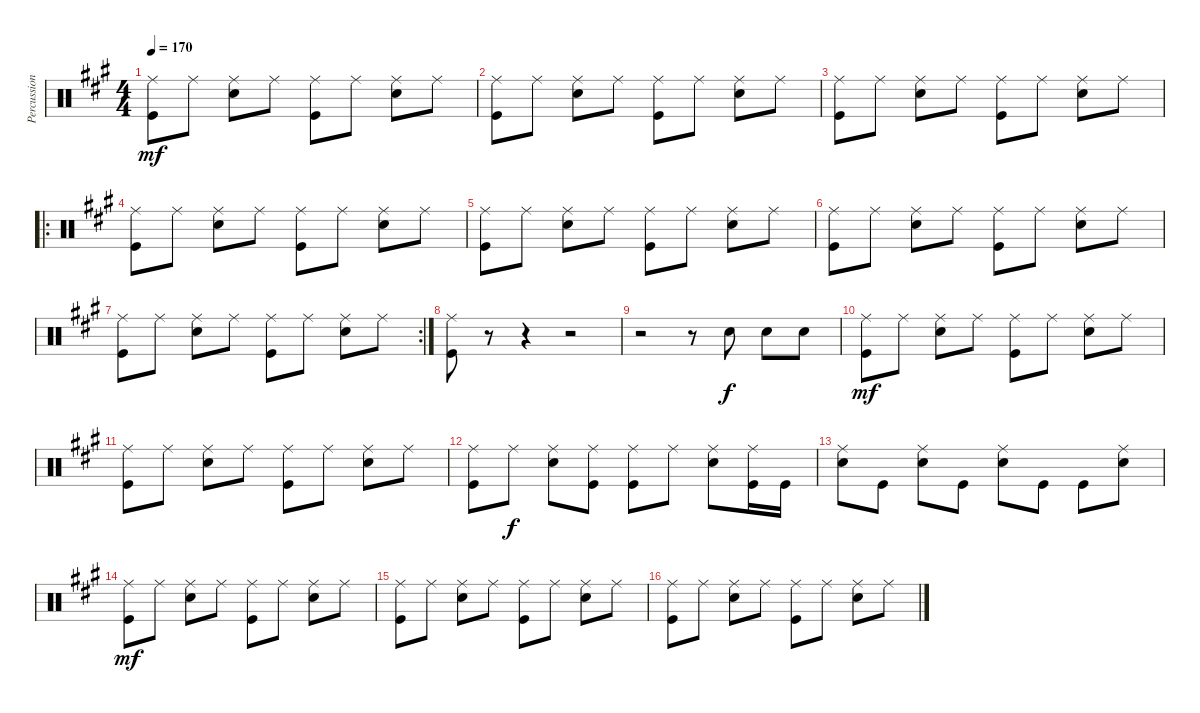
\track ("Percussion" "Percussion") {instrument percussion}
\staff {score}
\articulation defaults
\ts (4 4)
\tempo 170
\clef neutral
\ks a
("Ride (middle)" "Kick (hit)").8{dy mf} "Ride (middle)".8 ("Ride (middle)" "Snare (hit) 2").8 "Ride (middle)".8 ("Ride (middle)" "Kick (hit)").8 "Ride (middle)".8 ("Ride (middle)" "Snare (hit) 2").8 "Ride (middle)".8 |
("Ride (middle)" "Kick (hit)").8 "Ride (middle)".8 ("Ride (middle)" "Snare (hit) 2").8 "Ride (middle)".8 ("Ride (middle)" "Kick (hit)").8 "Ride (middle)".8 ("Ride (middle)" "Snare (hit) 2").8 "Ride (middle)".8 |
("Ride (middle)" "Kick (hit)").8 "Ride (middle)".8 ("Ride (middle)" "Snare (hit) 2").8 "Ride (middle)".8 ("Ride (middle)" "Kick (hit)").8 "Ride (middle)".8 ("Ride (middle)" "Snare (hit) 2").8 "Ride (middle)".8 |
\ro
("Ride (middle)" "Kick (hit)").8 "Ride (middle)".8 ("Ride (middle)" "Snare (hit) 2").8 "Ride (middle)".8 ("Ride (middle)" "Kick (hit)").8 "Ride (middle)".8 ("Ride (middle)" "Snare (hit) 2").8 "Ride (middle)".8 |
("Ride (middle)" "Kick (hit)").8 "Ride (middle)".8 ("Ride (middle)" "Snare (hit) 2").8 "Ride (middle)".8 ("Ride (middle)" "Kick (hit)").8 "Ride (middle)".8 ("Ride (middle)" "Snare (hit) 2").8 "Ride (middle)".8 |
("Ride (middle)" "Kick (hit)").8 "Ride (middle)".8 ("Ride (middle)" "Snare (hit) 2").8 "Ride (middle)".8 ("Ride (middle)" "Kick (hit)").8 "Ride (middle)".8 ("Ride (middle)" "Snare (hit) 2").8 "Ride (middle)".8 |
\rc 2
("Ride (middle)" "Kick (hit)").8 "Ride (middle)".8 ("Ride (middle)" "Snare (hit) 2").8 "Ride (middle)".8 ("Ride (middle)" "Kick (hit)").8 "Ride (middle)".8 ("Ride (middle)" "Snare (hit) 2").8 "Ride (middle)".8 |
("Ride (middle)" "Kick (hit)").8 r.8 r.4 r.2 |
r.2 r.8 "Snare (hit) 2".8{dy f} "Snare (hit) 2".8 "Snare (hit) 2".8 |
("Ride (middle)" "Kick (hit)").8{dy mf} "Ride (middle)".8 ("Ride (middle)" "Snare (hit) 2").8 "Ride (middle)".8 ("Ride (middle)" "Kick (hit)").8 "Ride (middle)".8 ("Ride (middle)" "Snare (hit) 2").8 "Ride (middle)".8 |
("Ride (middle)" "Kick (hit)").8 "Ride (middle)".8 ("Ride (middle)" "Snare (hit) 2").8 "Ride (middle)".8 ("Ride (middle)" "Kick (hit)").8 "Ride (middle)".8 ("Ride (middle)" "Snare (hit) 2").8 "Ride (middle)".8 |
("Ride (middle)" "Kick (hit)").8 "Ride (middle)".8{dy f} ("Ride (middle)" "Snare (hit) 2").8 ("Ride (middle)" "Kick (hit)").8 ("Ride (middle)" "Kick (hit)").8 "Ride (middle)".8 ("Ride (middle)" "Snare (hit) 2").8 ("Ride (middle)" "Kick (hit)").16 "Kick (hit)".16 |
("Ride (middle)" "Snare (hit) 2").8 "Kick (hit)".8 ("Ride (middle)" "Snare (hit) 2").8 "Kick (hit)".8 ("Ride (middle)" "Snare (hit) 2").8 "Kick (hit)".8 "Kick (hit)".8 ("Ride (middle)" "Snare (hit) 2").8 |
("Ride (middle)" "Kick (hit)").8{dy mf} "Ride (middle)".8 ("Ride (middle)" "Snare (hit) 2").8 "Ride (middle)".8 ("Ride (middle)" "Kick (hit)").8 "Ride (middle)".8 ("Ride (middle)" "Snare (hit) 2").8 "Ride (middle)".8 |
("Ride (middle)" "Kick (hit)").8 "Ride (middle)".8 ("Ride (middle)" "Snare (hit) 2").8 "Ride (middle)".8 ("Ride (middle)" "Kick (hit)").8 "Ride (middle)".8 ("Ride (middle)" "Snare (hit) 2").8 "Ride (middle)".8 |
("Ride (middle)" "Kick (hit)").8 "Ride (middle)".8 ("Ride (middle)" "Snare (hit) 2").8 "Ride (middle)".8 ("Ride (middle)" "Kick (hit)").8 "Ride (middle)".8 ("Ride (middle)" "Snare (hit) 2").8 "Ride (middle)".8
